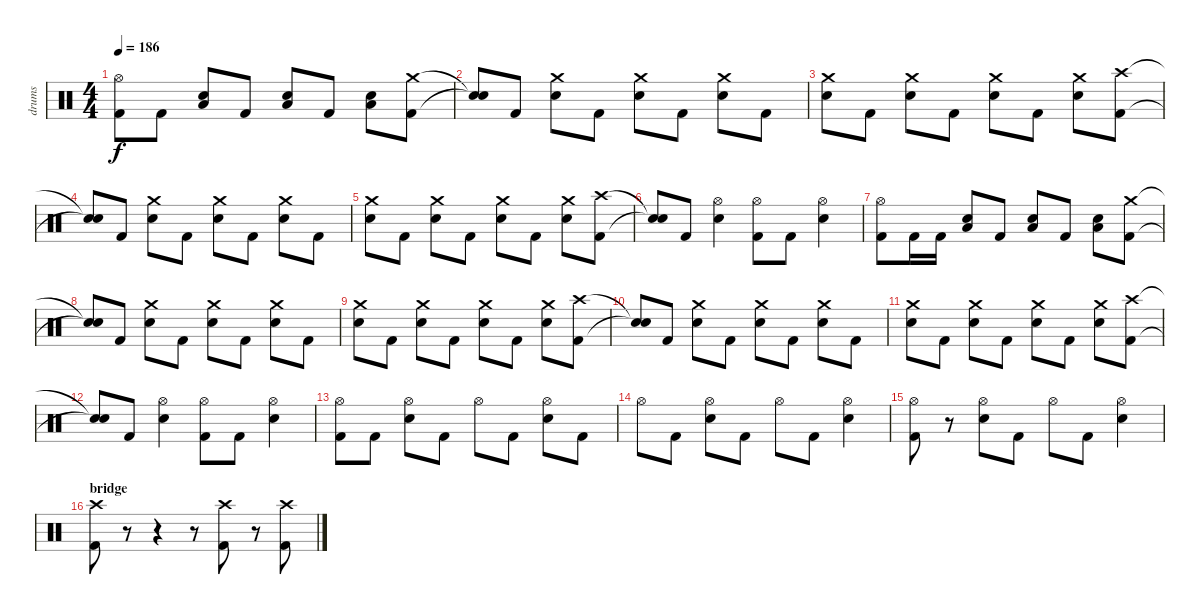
\track ("drums" "drums") {instrument percussion}
\staff {score}
\articulation defaults
\ts (4 4)
\tempo 186
\clef neutral
\ks c
("Hi-Hat (open)" "Kick (hit) 2").8{dy f} "Kick (hit) 2".8 ("Low Floor Tom (hit)" "Electric Snare (hit)").8 "Kick (hit) 2".8 ("Low Floor Tom (hit)" "Electric Snare (hit)").8 "Kick (hit) 2".8 ("Low Floor Tom (hit)" "Electric Snare (hit)").8 ("Crash medium (hit)" "Kick (hit) 2").8 |
("Snare (hit)"{t} "Snare (hit)"{t}).8 "Kick (hit) 2".8 ("Crash medium (hit)" "Electric Snare (hit)").8 "Kick (hit) 2".8 ("Crash medium (hit)" "Electric Snare (hit)").8 "Kick (hit) 2".8 ("Crash medium (hit)" "Electric Snare (hit)").8 "Kick (hit) 2".8 |
("Crash medium (hit)" "Electric Snare (hit)").8 "Kick (hit) 2".8 ("Crash medium (hit)" "Electric Snare (hit)").8 "Kick (hit) 2".8 ("Crash medium (hit)" "Electric Snare (hit)").8 "Kick (hit) 2".8 ("Crash medium (hit)" "Electric Snare (hit)").8 ("Crash high (hit)" "Kick (hit) 2").8 |
("Snare (hit)"{t} "Snare (hit)"{t}).8 "Kick (hit) 2".8 ("Crash medium (hit)" "Electric Snare (hit)").8 "Kick (hit) 2".8 ("Crash medium (hit)" "Electric Snare (hit)").8 "Kick (hit) 2".8 ("Crash medium (hit)" "Electric Snare (hit)").8 "Kick (hit) 2".8 |
("Crash medium (hit)" "Electric Snare (hit)").8 "Kick (hit) 2".8 ("Crash medium (hit)" "Electric Snare (hit)").8 "Kick (hit) 2".8 ("Crash medium (hit)" "Electric Snare (hit)").8 "Kick (hit) 2".8 ("Crash medium (hit)" "Electric Snare (hit)").8 ("Crash high (hit)" "Kick (hit) 2").8 |
("Snare (hit)"{t} "Snare (hit)"{t}).8 "Kick (hit) 2".8 ("Hi-Hat (open)" "Electric Snare (hit)").4 ("Hi-Hat (open)" "Kick (hit) 2").8 "Kick (hit) 2".8 ("Hi-Hat (open)" "Electric Snare (hit)").4 |
("Hi-Hat (open)" "Kick (hit) 2").8 "Kick (hit) 2".16 "Kick (hit) 2".16 ("Low Floor Tom (hit)" "Electric Snare (hit)").8 "Kick (hit) 2".8 ("Low Floor Tom (hit)" "Electric Snare (hit)").8 "Kick (hit) 2".8 ("Low Floor Tom (hit)" "Electric Snare (hit)").8 ("Crash medium (hit)" "Kick (hit) 2").8 |
("Snare (hit)"{t} "Snare (hit)"{t}).8 "Kick (hit) 2".8 ("Crash medium (hit)" "Electric Snare (hit)").8 "Kick (hit) 2".8 ("Crash medium (hit)" "Electric Snare (hit)").8 "Kick (hit) 2".8 ("Crash medium (hit)" "Electric Snare (hit)").8 "Kick (hit) 2".8 |
("Crash medium (hit)" "Electric Snare (hit)").8 "Kick (hit) 2".8 ("Crash medium (hit)" "Electric Snare (hit)").8 "Kick (hit) 2".8 ("Crash medium (hit)" "Electric Snare (hit)").8 "Kick (hit) 2".8 ("Crash medium (hit)" "Electric Snare (hit)").8 ("Crash high (hit)" "Kick (hit) 2").8 |
("Snare (hit)"{t} "Snare (hit)"{t}).8 "Kick (hit) 2".8 ("Crash medium (hit)" "Electric Snare (hit)").8 "Kick (hit) 2".8 ("Crash medium (hit)" "Electric Snare (hit)").8 "Kick (hit) 2".8 ("Crash medium (hit)" "Electric Snare (hit)").8 "Kick (hit) 2".8 |
("Crash medium (hit)" "Electric Snare (hit)").8 "Kick (hit) 2".8 ("Crash medium (hit)" "Electric Snare (hit)").8 "Kick (hit) 2".8 ("Crash medium (hit)" "Electric Snare (hit)").8 "Kick (hit) 2".8 ("Crash medium (hit)" "Electric Snare (hit)").8 ("Crash high (hit)" "Kick (hit) 2").8 |
("Snare (hit)"{t} "Snare (hit)"{t}).8 "Kick (hit) 2".8 ("Hi-Hat (open)" "Electric Snare (hit)").4 ("Hi-Hat (open)" "Kick (hit) 2").8 "Kick (hit) 2".8 ("Hi-Hat (open)" "Electric Snare (hit)").4 |
("Hi-Hat (open)" "Kick (hit) 2").8 "Kick (hit) 2".8 ("Hi-Hat (open)" "Electric Snare (hit)").8 "Kick (hit) 2".8 "Hi-Hat (open)".8 "Kick (hit) 2".8 ("Hi-Hat (open)" "Electric Snare (hit)").8 "Kick (hit) 2".8 |
"Hi-Hat (open)".8 "Kick (hit) 2".8 ("Hi-Hat (open)" "Electric Snare (hit)").8 "Kick (hit) 2".8 "Hi-Hat (open)".8 "Kick (hit) 2".8 ("Hi-Hat (open)" "Electric Snare (hit)").4 |
("Hi-Hat (open)" "Kick (hit) 2").8 r.8 ("Hi-Hat (open)" "Electric Snare (hit)").8 "Kick (hit) 2".8 "Hi-Hat (open)".8 "Kick (hit) 2".8 ("Hi-Hat (open)" "Electric Snare (hit)").4 |
\section ("" "bridge")
("Crash high (hit)" "Kick (hit) 2").8 r.8 r.4 r.8 ("Crash high (hit)" "Kick (hit) 2").8 r.8 ("Crash high (hit)" "Kick (hit) 2").8
